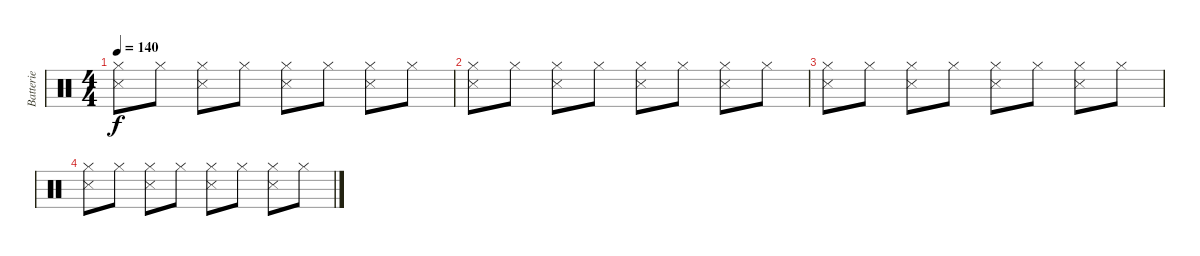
\track ("Batterie" "Batterie") {instrument percussion}
\staff {score}
\articulation defaults
\ts (4 4)
\tempo 140
\clef neutral
\ks c
("Hi-Hat (closed)" "Metronome (hit)").8{dy f} "Hi-Hat (closed)".8 ("Hi-Hat (closed)" "Metronome (hit)").8 "Hi-Hat (closed)".8 ("Hi-Hat (closed)" "Metronome (hit)").8 "Hi-Hat (closed)".8 ("Hi-Hat (closed)" "Metronome (hit)").8 "Hi-Hat (closed)".8 |
("Hi-Hat (closed)" "Metronome (hit)").8 "Hi-Hat (closed)".8 ("Hi-Hat (closed)" "Metronome (hit)").8 "Hi-Hat (closed)".8 ("Hi-Hat (closed)" "Metronome (hit)").8 "Hi-Hat (closed)".8 ("Hi-Hat (closed)" "Metronome (hit)").8 "Hi-Hat (closed)".8 |
("Hi-Hat (closed)" "Metronome (hit)").8 "Hi-Hat (closed)".8 ("Hi-Hat (closed)" "Metronome (hit)").8 "Hi-Hat (closed)".8 ("Hi-Hat (closed)" "Metronome (hit)").8 "Hi-Hat (closed)".8 ("Hi-Hat (closed)" "Metronome (hit)").8 "Hi-Hat (closed)".8 |
("Hi-Hat (closed)" "Metronome (hit)").8 "Hi-Hat (closed)".8 ("Hi-Hat (closed)" "Metronome (hit)").8 "Hi-Hat (closed)".8 ("Hi-Hat (closed)" "Metronome (hit)").8 "Hi-Hat (closed)".8 ("Hi-Hat (closed)" "Metronome (hit)").8 "Hi-Hat (closed)".8
